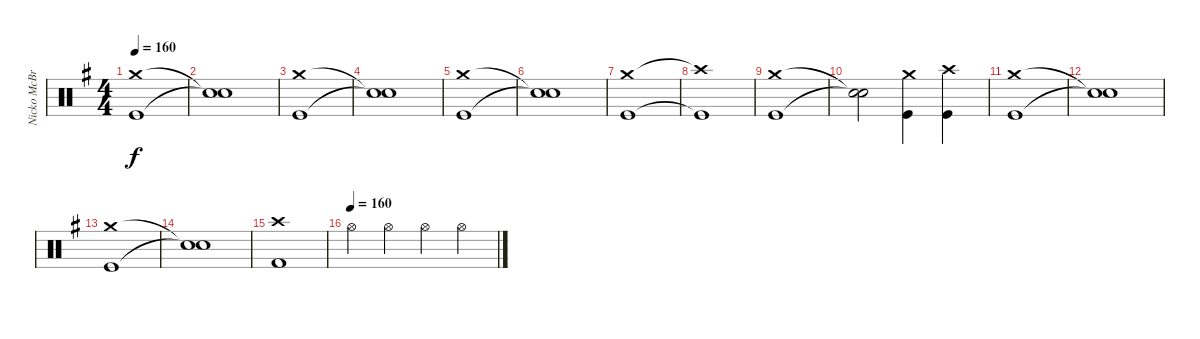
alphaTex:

\track ("Nicko McBrain" "Nicko McBr") {instrument percussion}
\staff {score}
\articulation defaults
\ts (4 4)
\tempo 160
\tempo 135
\tempo 160
\clef neutral
\ks g
("Kick (hit)" "Crash medium (hit)").1{dy f} |
("Snare (hit)"{t} "Snare (hit)"{t}).1 |
("Kick (hit)" "Crash medium (hit)").1 |
("Snare (hit)"{t} "Snare (hit)"{t}).1 |
("Kick (hit)" "Crash medium (hit)").1 |
("Snare (hit)"{t} "Snare (hit)"{t}).1 |
("Kick (hit)" "Crash medium (hit)").1 |
("Kick (hit)"{t} "Crash high (hit)"{t}).1 |
("Kick (hit)" "Crash medium (hit)").1 |
("Snare (hit)"{t} "Snare (hit)"{t}).2 ("Kick (hit)" "Crash medium (hit)").4 ("Kick (hit)" "Crash high (hit)").4 |
("Kick (hit)" "Crash medium (hit)").1 |
("Snare (hit)"{t} "Snare (hit)"{t}).1 |
("Kick (hit)" "Crash medium (hit)").1 |
("Snare (hit)"{t} "Snare (hit)"{t}).1 |
("Kick (hit) 2" "Crash high (hit)").1 |
\tempo (160)
"Hi-Hat (open)".4 "Hi-Hat (open)".4 "Hi-Hat (open)".4 "Hi-Hat (open)".4
